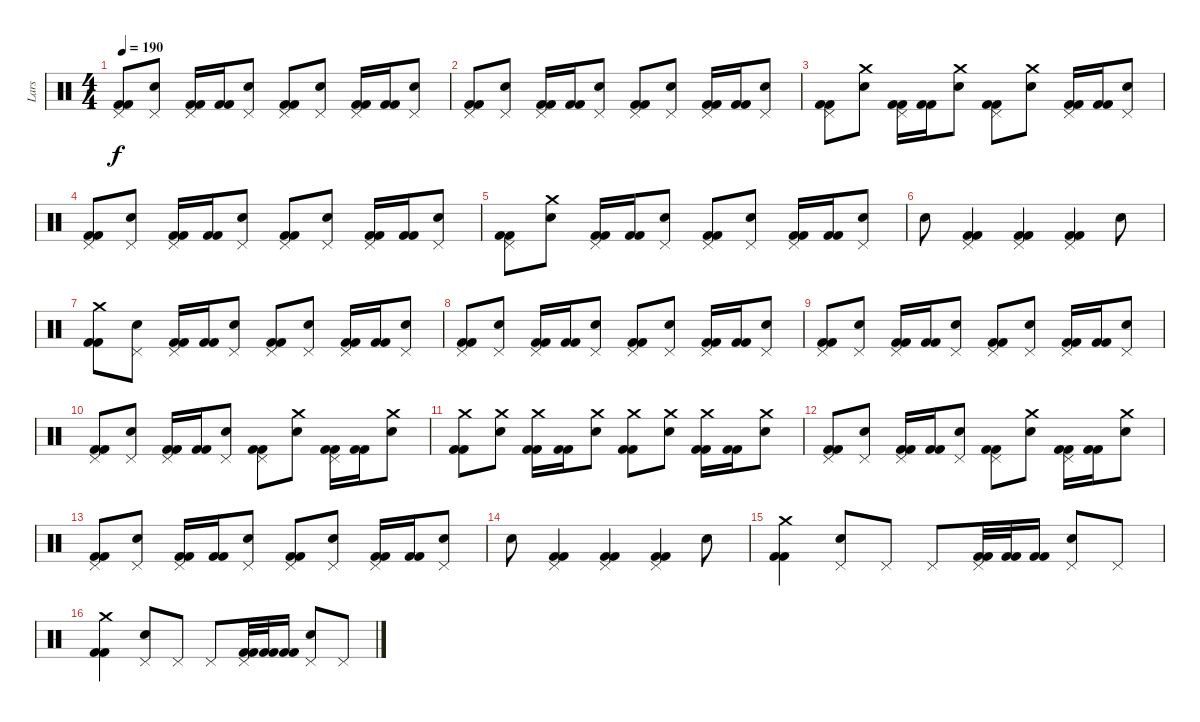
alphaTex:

\track ("Lars" "Lars") {instrument percussion}
\staff {score}
\articulation defaults
\ts (4 4)
\tempo 190
\clef neutral
\ks c
("Pedal Hi-Hat (hit)" "Kick (hit) 2" "Kick (hit) 2").8{dy f} ("Pedal Hi-Hat (hit)" "Electric Snare (hit)").8 ("Pedal Hi-Hat (hit)" "Kick (hit) 2" "Kick (hit) 2").16 ("Kick (hit) 2" "Kick (hit) 2").16 ("Pedal Hi-Hat (hit)" "Electric Snare (hit)").8 ("Pedal Hi-Hat (hit)" "Kick (hit) 2" "Kick (hit) 2").8 ("Pedal Hi-Hat (hit)" "Electric Snare (hit)").8 ("Pedal Hi-Hat (hit)" "Kick (hit) 2" "Kick (hit) 2").16 ("Kick (hit) 2" "Kick (hit) 2").16 ("Pedal Hi-Hat (hit)" "Electric Snare (hit)").8 |
("Pedal Hi-Hat (hit)" "Kick (hit) 2" "Kick (hit) 2").8 ("Pedal Hi-Hat (hit)" "Electric Snare (hit)").8 ("Pedal Hi-Hat (hit)" "Kick (hit) 2" "Kick (hit) 2").16 ("Kick (hit) 2" "Kick (hit) 2").16 ("Pedal Hi-Hat (hit)" "Electric Snare (hit)").8 ("Pedal Hi-Hat (hit)" "Kick (hit) 2" "Kick (hit) 2").8 ("Pedal Hi-Hat (hit)" "Electric Snare (hit)").8 ("Pedal Hi-Hat (hit)" "Kick (hit) 2" "Kick (hit) 2").16 ("Kick (hit) 2" "Kick (hit) 2").16 ("Pedal Hi-Hat (hit)" "Electric Snare (hit)").8 |
("Pedal Hi-Hat (hit)" "Kick (hit) 2" "Kick (hit) 2").8 ("Crash medium (hit)" "Electric Snare (hit)").8 ("Pedal Hi-Hat (hit)" "Kick (hit) 2" "Kick (hit) 2").16 ("Kick (hit) 2" "Kick (hit) 2").16 ("Crash medium (hit)" "Electric Snare (hit)").8 ("Pedal Hi-Hat (hit)" "Kick (hit) 2" "Kick (hit) 2").8 ("Crash medium (hit)" "Electric Snare (hit)").8 ("Pedal Hi-Hat (hit)" "Kick (hit) 2" "Kick (hit) 2").16 ("Kick (hit) 2" "Kick (hit) 2").16 ("Pedal Hi-Hat (hit)" "Electric Snare (hit)").8 |
("Pedal Hi-Hat (hit)" "Kick (hit) 2" "Kick (hit) 2").8 ("Pedal Hi-Hat (hit)" "Electric Snare (hit)").8 ("Pedal Hi-Hat (hit)" "Kick (hit) 2" "Kick (hit) 2").16 ("Kick (hit) 2" "Kick (hit) 2").16 ("Pedal Hi-Hat (hit)" "Electric Snare (hit)").8 ("Pedal Hi-Hat (hit)" "Kick (hit) 2" "Kick (hit) 2").8 ("Pedal Hi-Hat (hit)" "Electric Snare (hit)").8 ("Pedal Hi-Hat (hit)" "Kick (hit) 2" "Kick (hit) 2").16 ("Kick (hit) 2" "Kick (hit) 2").16 ("Pedal Hi-Hat (hit)" "Electric Snare (hit)").8 |
("Pedal Hi-Hat (hit)" "Kick (hit) 2" "Kick (hit) 2").8 ("Crash medium (hit)" "Electric Snare (hit)").8 ("Pedal Hi-Hat (hit)" "Kick (hit) 2" "Kick (hit) 2").16 ("Kick (hit) 2" "Kick (hit) 2").16 ("Pedal Hi-Hat (hit)" "Electric Snare (hit)").8 ("Pedal Hi-Hat (hit)" "Kick (hit) 2" "Kick (hit) 2").8 ("Pedal Hi-Hat (hit)" "Electric Snare (hit)").8 ("Pedal Hi-Hat (hit)" "Kick (hit) 2" "Kick (hit) 2").16 ("Kick (hit) 2" "Kick (hit) 2").16 ("Pedal Hi-Hat (hit)" "Electric Snare (hit)").8 |
"Electric Snare (hit)".8 ("Pedal Hi-Hat (hit)" "Kick (hit) 2" "Kick (hit) 2").4 ("Pedal Hi-Hat (hit)" "Kick (hit) 2" "Kick (hit) 2").4 ("Pedal Hi-Hat (hit)" "Kick (hit) 2" "Kick (hit) 2").4 "Electric Snare (hit)".8 |
("Crash medium (hit)" "Kick (hit) 2" "Kick (hit) 2").8 ("Pedal Hi-Hat (hit)" "Electric Snare (hit)").8 ("Pedal Hi-Hat (hit)" "Kick (hit) 2" "Kick (hit) 2").16 ("Kick (hit) 2" "Kick (hit) 2").16 ("Pedal Hi-Hat (hit)" "Electric Snare (hit)").8 ("Pedal Hi-Hat (hit)" "Kick (hit) 2" "Kick (hit) 2").8 ("Pedal Hi-Hat (hit)" "Electric Snare (hit)").8 ("Pedal Hi-Hat (hit)" "Kick (hit) 2" "Kick (hit) 2").16 ("Kick (hit) 2" "Kick (hit) 2").16 ("Pedal Hi-Hat (hit)" "Electric Snare (hit)").8 |
("Pedal Hi-Hat (hit)" "Kick (hit) 2" "Kick (hit) 2").8 ("Pedal Hi-Hat (hit)" "Electric Snare (hit)").8 ("Pedal Hi-Hat (hit)" "Kick (hit) 2" "Kick (hit) 2").16 ("Kick (hit) 2" "Kick (hit) 2").16 ("Pedal Hi-Hat (hit)" "Electric Snare (hit)").8 ("Pedal Hi-Hat (hit)" "Kick (hit) 2" "Kick (hit) 2").8 ("Pedal Hi-Hat (hit)" "Electric Snare (hit)").8 ("Pedal Hi-Hat (hit)" "Kick (hit) 2" "Kick (hit) 2").16 ("Kick (hit) 2" "Kick (hit) 2").16 ("Pedal Hi-Hat (hit)" "Electric Snare (hit)").8 |
("Pedal Hi-Hat (hit)" "Kick (hit) 2" "Kick (hit) 2").8 ("Pedal Hi-Hat (hit)" "Electric Snare (hit)").8 ("Pedal Hi-Hat (hit)" "Kick (hit) 2" "Kick (hit) 2").16 ("Kick (hit) 2" "Kick (hit) 2").16 ("Pedal Hi-Hat (hit)" "Electric Snare (hit)").8 ("Pedal Hi-Hat (hit)" "Kick (hit) 2" "Kick (hit) 2").8 ("Pedal Hi-Hat (hit)" "Electric Snare (hit)").8 ("Pedal Hi-Hat (hit)" "Kick (hit) 2" "Kick (hit) 2").16 ("Kick (hit) 2" "Kick (hit) 2").16 ("Pedal Hi-Hat (hit)" "Electric Snare (hit)").8 |
("Pedal Hi-Hat (hit)" "Kick (hit) 2" "Kick (hit) 2").8 ("Pedal Hi-Hat (hit)" "Electric Snare (hit)").8 ("Pedal Hi-Hat (hit)" "Kick (hit) 2" "Kick (hit) 2").16 ("Kick (hit) 2" "Kick (hit) 2").16 ("Pedal Hi-Hat (hit)" "Electric Snare (hit)").8 ("Pedal Hi-Hat (hit)" "Kick (hit) 2" "Kick (hit) 2").8 ("Crash medium (hit)" "Electric Snare (hit)").8 ("Pedal Hi-Hat (hit)" "Kick (hit) 2" "Kick (hit) 2").16 ("Kick (hit) 2" "Kick (hit) 2").16 ("Crash medium (hit)" "Electric Snare (hit)").8 |
("Crash medium (hit)" "Kick (hit) 2" "Kick (hit) 2").8 ("Crash medium (hit)" "Electric Snare (hit)").8 ("Crash medium (hit)" "Kick (hit) 2" "Kick (hit) 2").16 ("Kick (hit) 2" "Kick (hit) 2").16 ("Crash medium (hit)" "Electric Snare (hit)").8 ("Crash medium (hit)" "Kick (hit) 2" "Kick (hit) 2").8 ("Crash medium (hit)" "Electric Snare (hit)").8 ("Crash medium (hit)" "Kick (hit) 2" "Kick (hit) 2").16 ("Kick (hit) 2" "Kick (hit) 2").16 ("Crash medium (hit)" "Electric Snare (hit)").8 |
("Pedal Hi-Hat (hit)" "Kick (hit) 2" "Kick (hit) 2").8 ("Pedal Hi-Hat (hit)" "Electric Snare (hit)").8 ("Pedal Hi-Hat (hit)" "Kick (hit) 2" "Kick (hit) 2").16 ("Kick (hit) 2" "Kick (hit) 2").16 ("Pedal Hi-Hat (hit)" "Electric Snare (hit)").8 ("Pedal Hi-Hat (hit)" "Kick (hit) 2" "Kick (hit) 2").8 ("Crash medium (hit)" "Electric Snare (hit)").8 ("Pedal Hi-Hat (hit)" "Kick (hit) 2" "Kick (hit) 2").16 ("Kick (hit) 2" "Kick (hit) 2").16 ("Crash medium (hit)" "Electric Snare (hit)").8 |
("Pedal Hi-Hat (hit)" "Kick (hit) 2" "Kick (hit) 2").8 ("Pedal Hi-Hat (hit)" "Electric Snare (hit)").8 ("Pedal Hi-Hat (hit)" "Kick (hit) 2" "Kick (hit) 2").16 ("Kick (hit) 2" "Kick (hit) 2").16 ("Pedal Hi-Hat (hit)" "Electric Snare (hit)").8 ("Pedal Hi-Hat (hit)" "Kick (hit) 2" "Kick (hit) 2").8 ("Pedal Hi-Hat (hit)" "Electric Snare (hit)").8 ("Pedal Hi-Hat (hit)" "Kick (hit) 2" "Kick (hit) 2").16 ("Kick (hit) 2" "Kick (hit) 2").16 ("Pedal Hi-Hat (hit)" "Electric Snare (hit)").8 |
"Electric Snare (hit)".8 ("Pedal Hi-Hat (hit)" "Kick (hit) 2" "Kick (hit) 2").4 ("Pedal Hi-Hat (hit)" "Kick (hit) 2" "Kick (hit) 2").4 ("Pedal Hi-Hat (hit)" "Kick (hit) 2" "Kick (hit) 2").4 "Electric Snare (hit)".8 |
("Crash medium (hit)" "Kick (hit) 2" "Kick (hit) 2").4 ("Pedal Hi-Hat (hit)" "Electric Snare (hit)").8 "Pedal Hi-Hat (hit)".8 "Pedal Hi-Hat (hit)".8 ("Pedal Hi-Hat (hit)" "Kick (hit) 2" "Kick (hit) 2").32 ("Kick (hit) 2" "Kick (hit) 2").32 ("Kick (hit) 2" "Kick (hit) 2").16 ("Pedal Hi-Hat (hit)" "Electric Snare (hit)").8 "Pedal Hi-Hat (hit)".8 |
("Crash medium (hit)" "Kick (hit) 2" "Kick (hit) 2").4 ("Pedal Hi-Hat (hit)" "Electric Snare (hit)").8 "Pedal Hi-Hat (hit)".8 "Pedal Hi-Hat (hit)".8 ("Pedal Hi-Hat (hit)" "Kick (hit) 2" "Kick (hit) 2").32 ("Kick (hit) 2" "Kick (hit) 2").32 ("Kick (hit) 2" "Kick (hit) 2").16 ("Pedal Hi-Hat (hit)" "Electric Snare (hit)").8 "Pedal Hi-Hat (hit)".8
